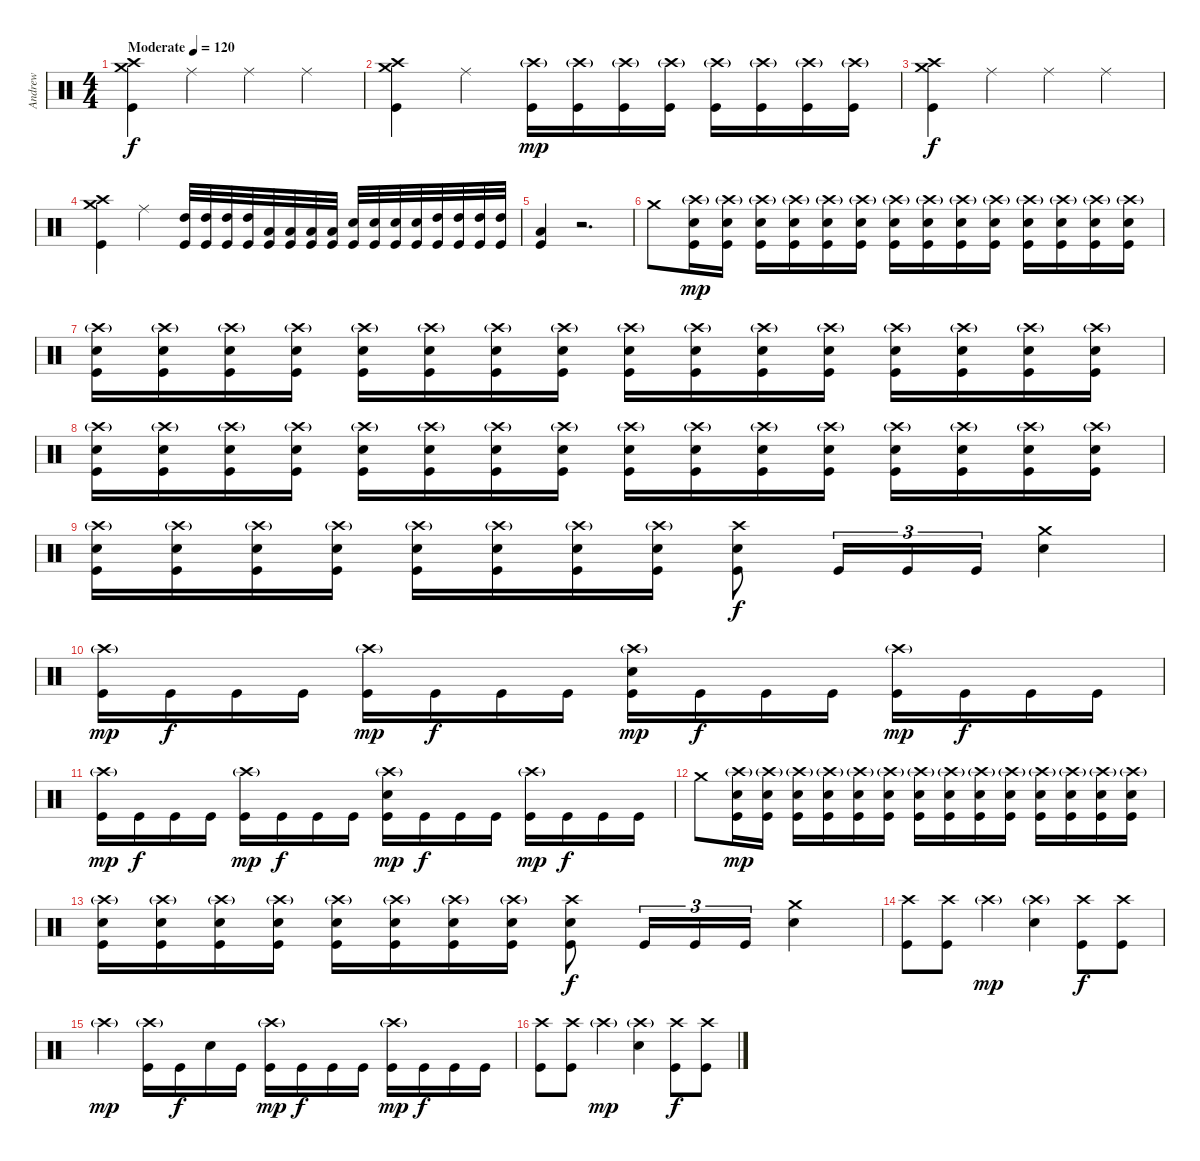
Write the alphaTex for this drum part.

\track ("Andrew" "Andrew") {instrument percussion}
\staff {score}
\articulation defaults
\ts (4 4)
\tempo (120 "Moderate")
\clef neutral
\ks c
("Crash high (hit)" "Crash medium (hit)" "Kick (hit)").4{dy f} "Ride (middle)".4 "Ride (middle)".4 "Ride (middle)".4 |
("Crash high (hit)" "Crash medium (hit)" "Kick (hit)").4 "Ride (middle)".4 ("Crash high (hit)"{g} "Kick (hit)").16{dy mp} ("Crash high (hit)"{g} "Kick (hit)").16 ("Crash high (hit)"{g} "Kick (hit)").16 ("Crash high (hit)"{g} "Kick (hit)").16 ("Crash high (hit)"{g} "Kick (hit)").16 ("Crash high (hit)"{g} "Kick (hit)").16 ("Crash high (hit)"{g} "Kick (hit)").16 ("Crash high (hit)"{g} "Kick (hit)").16 |
("Crash high (hit)" "Crash medium (hit)" "Kick (hit)").4{dy f} "Ride (middle)".4 "Ride (middle)".4 "Ride (middle)".4 |
("Crash high (hit)" "Crash medium (hit)" "Kick (hit)").4 "Ride (middle)".4 ("High Tom (hit)" "Kick (hit)").32 ("High Tom (hit)" "Kick (hit)").32 ("High Tom (hit)" "Kick (hit)").32 ("High Tom (hit)" "Kick (hit)").32 ("Low Tom (hit)" "Kick (hit)").32 ("Low Tom (hit)" "Kick (hit)").32 ("Low Tom (hit)" "Kick (hit)").32 ("Low Tom (hit)" "Kick (hit)").32 ("Snare (hit) 2" "Kick (hit)").32 ("Snare (hit) 2" "Kick (hit)").32 ("Snare (hit) 2" "Kick (hit)").32 ("Snare (hit) 2" "Kick (hit)").32 ("High Tom (hit)" "Kick (hit)").32 ("High Tom (hit)" "Kick (hit)").32 ("High Tom (hit)" "Kick (hit)").32 ("High Tom (hit)" "Kick (hit)").32 |
("Low Tom (hit)" "Kick (hit)").4 r.2{d} |
"Crash medium (hit)".8 ("Crash high (hit)"{g} "Snare (hit) 2" "Kick (hit)").16{dy mp} ("Crash high (hit)"{g} "Snare (hit) 2" "Kick (hit)").16 ("Crash high (hit)"{g} "Snare (hit) 2" "Kick (hit)").16 ("Crash high (hit)"{g} "Snare (hit) 2" "Kick (hit)").16 ("Crash high (hit)"{g} "Snare (hit) 2" "Kick (hit)").16 ("Crash high (hit)"{g} "Snare (hit) 2" "Kick (hit)").16 ("Crash high (hit)"{g} "Snare (hit) 2" "Kick (hit)").16 ("Crash high (hit)"{g} "Snare (hit) 2" "Kick (hit)").16 ("Crash high (hit)"{g} "Snare (hit) 2" "Kick (hit)").16 ("Crash high (hit)"{g} "Snare (hit) 2" "Kick (hit)").16 ("Crash high (hit)"{g} "Snare (hit) 2" "Kick (hit)").16 ("Crash high (hit)"{g} "Snare (hit) 2" "Kick (hit)").16 ("Crash high (hit)"{g} "Snare (hit) 2" "Kick (hit)").16 ("Crash high (hit)"{g} "Snare (hit) 2" "Kick (hit)").16 |
("Crash high (hit)"{g} "Snare (hit) 2" "Kick (hit)").16 ("Crash high (hit)"{g} "Snare (hit) 2" "Kick (hit)").16 ("Crash high (hit)"{g} "Snare (hit) 2" "Kick (hit)").16 ("Crash high (hit)"{g} "Snare (hit) 2" "Kick (hit)").16 ("Crash high (hit)"{g} "Snare (hit) 2" "Kick (hit)").16 ("Crash high (hit)"{g} "Snare (hit) 2" "Kick (hit)").16 ("Crash high (hit)"{g} "Snare (hit) 2" "Kick (hit)").16 ("Crash high (hit)"{g} "Snare (hit) 2" "Kick (hit)").16 ("Crash high (hit)"{g} "Snare (hit) 2" "Kick (hit)").16 ("Crash high (hit)"{g} "Snare (hit) 2" "Kick (hit)").16 ("Crash high (hit)"{g} "Snare (hit) 2" "Kick (hit)").16 ("Crash high (hit)"{g} "Snare (hit) 2" "Kick (hit)").16 ("Crash high (hit)"{g} "Snare (hit) 2" "Kick (hit)").16 ("Crash high (hit)"{g} "Snare (hit) 2" "Kick (hit)").16 ("Crash high (hit)"{g} "Snare (hit) 2" "Kick (hit)").16 ("Crash high (hit)"{g} "Snare (hit) 2" "Kick (hit)").16 |
("Crash high (hit)"{g} "Snare (hit) 2" "Kick (hit)").16 ("Crash high (hit)"{g} "Snare (hit) 2" "Kick (hit)").16 ("Crash high (hit)"{g} "Snare (hit) 2" "Kick (hit)").16 ("Crash high (hit)"{g} "Snare (hit) 2" "Kick (hit)").16 ("Crash high (hit)"{g} "Snare (hit) 2" "Kick (hit)").16 ("Crash high (hit)"{g} "Snare (hit) 2" "Kick (hit)").16 ("Crash high (hit)"{g} "Snare (hit) 2" "Kick (hit)").16 ("Crash high (hit)"{g} "Snare (hit) 2" "Kick (hit)").16 ("Crash high (hit)"{g} "Snare (hit) 2" "Kick (hit)").16 ("Crash high (hit)"{g} "Snare (hit) 2" "Kick (hit)").16 ("Crash high (hit)"{g} "Snare (hit) 2" "Kick (hit)").16 ("Crash high (hit)"{g} "Snare (hit) 2" "Kick (hit)").16 ("Crash high (hit)"{g} "Snare (hit) 2" "Kick (hit)").16 ("Crash high (hit)"{g} "Snare (hit) 2" "Kick (hit)").16 ("Crash high (hit)"{g} "Snare (hit) 2" "Kick (hit)").16 ("Crash high (hit)"{g} "Snare (hit) 2" "Kick (hit)").16 |
("Crash high (hit)"{g} "Snare (hit) 2" "Kick (hit)").16 ("Crash high (hit)"{g} "Snare (hit) 2" "Kick (hit)").16 ("Crash high (hit)"{g} "Snare (hit) 2" "Kick (hit)").16 ("Crash high (hit)"{g} "Snare (hit) 2" "Kick (hit)").16 ("Crash high (hit)"{g} "Snare (hit) 2" "Kick (hit)").16 ("Crash high (hit)"{g} "Snare (hit) 2" "Kick (hit)").16 ("Crash high (hit)"{g} "Snare (hit) 2" "Kick (hit)").16 ("Crash high (hit)"{g} "Snare (hit) 2" "Kick (hit)").16 ("Crash high (hit)" "Snare (hit) 2" "Kick (hit)").8{dy f} "Kick (hit)".16{tu (3 2)} "Kick (hit)".16{tu (3 2)} "Kick (hit)".16{tu (3 2)} ("Crash medium (hit)" "Snare (hit) 2").4 |
("Crash high (hit)"{g} "Kick (hit)").16{dy mp} "Kick (hit)".16{dy f} "Kick (hit)".16 "Kick (hit)".16 ("Crash high (hit)"{g} "Kick (hit)").16{dy mp} "Kick (hit)".16{dy f} "Kick (hit)".16 "Kick (hit)".16 ("Crash high (hit)"{g} "Snare (hit) 2" "Kick (hit)").16{dy mp} "Kick (hit)".16{dy f} "Kick (hit)".16 "Kick (hit)".16 ("Crash high (hit)"{g} "Kick (hit)").16{dy mp} "Kick (hit)".16{dy f} "Kick (hit)".16 "Kick (hit)".16 |
("Crash high (hit)"{g} "Kick (hit)").16{dy mp} "Kick (hit)".16{dy f} "Kick (hit)".16 "Kick (hit)".16 ("Crash high (hit)"{g} "Kick (hit)").16{dy mp} "Kick (hit)".16{dy f} "Kick (hit)".16 "Kick (hit)".16 ("Crash high (hit)"{g} "Snare (hit) 2" "Kick (hit)").16{dy mp} "Kick (hit)".16{dy f} "Kick (hit)".16 "Kick (hit)".16 ("Crash high (hit)"{g} "Kick (hit)").16{dy mp} "Kick (hit)".16{dy f} "Kick (hit)".16 "Kick (hit)".16 |
"Crash medium (hit)".8 ("Crash high (hit)"{g} "Snare (hit) 2" "Kick (hit)").16{dy mp} ("Crash high (hit)"{g} "Snare (hit) 2" "Kick (hit)").16 ("Crash high (hit)"{g} "Snare (hit) 2" "Kick (hit)").16 ("Crash high (hit)"{g} "Snare (hit) 2" "Kick (hit)").16 ("Crash high (hit)"{g} "Snare (hit) 2" "Kick (hit)").16 ("Crash high (hit)"{g} "Snare (hit) 2" "Kick (hit)").16 ("Crash high (hit)"{g} "Snare (hit) 2" "Kick (hit)").16 ("Crash high (hit)"{g} "Snare (hit) 2" "Kick (hit)").16 ("Crash high (hit)"{g} "Snare (hit) 2" "Kick (hit)").16 ("Crash high (hit)"{g} "Snare (hit) 2" "Kick (hit)").16 ("Crash high (hit)"{g} "Snare (hit) 2" "Kick (hit)").16 ("Crash high (hit)"{g} "Snare (hit) 2" "Kick (hit)").16 ("Crash high (hit)"{g} "Snare (hit) 2" "Kick (hit)").16 ("Crash high (hit)"{g} "Snare (hit) 2" "Kick (hit)").16 |
("Crash high (hit)"{g} "Snare (hit) 2" "Kick (hit)").16 ("Crash high (hit)"{g} "Snare (hit) 2" "Kick (hit)").16 ("Crash high (hit)"{g} "Snare (hit) 2" "Kick (hit)").16 ("Crash high (hit)"{g} "Snare (hit) 2" "Kick (hit)").16 ("Crash high (hit)"{g} "Snare (hit) 2" "Kick (hit)").16 ("Crash high (hit)"{g} "Snare (hit) 2" "Kick (hit)").16 ("Crash high (hit)"{g} "Snare (hit) 2" "Kick (hit)").16 ("Crash high (hit)"{g} "Snare (hit) 2" "Kick (hit)").16 ("Crash high (hit)" "Snare (hit) 2" "Kick (hit)").8{dy f} "Kick (hit)".16{tu (3 2)} "Kick (hit)".16{tu (3 2)} "Kick (hit)".16{tu (3 2)} ("Crash medium (hit)" "Snare (hit) 2").4 |
("Crash high (hit)" "Kick (hit)").8 ("Crash high (hit)" "Kick (hit)").8 "Crash high (hit)"{g}.4{dy mp} ("Crash high (hit)"{g} "Snare (hit) 2").4 ("Crash high (hit)" "Kick (hit)").8{dy f} ("Crash high (hit)" "Kick (hit)").8 |
"Crash high (hit)"{g}.4{dy mp} ("Crash high (hit)"{g} "Kick (hit)").16 "Kick (hit)".16{dy f} "Snare (hit) 2".16 "Kick (hit)".16 ("Crash high (hit)"{g} "Kick (hit)").16{dy mp} "Kick (hit)".16{dy f} "Kick (hit)".16 "Kick (hit)".16 ("Crash high (hit)"{g} "Kick (hit)").16{dy mp} "Kick (hit)".16{dy f} "Kick (hit)".16 "Kick (hit)".16 |
("Crash high (hit)" "Kick (hit)").8 ("Crash high (hit)" "Kick (hit)").8 "Crash high (hit)"{g}.4{dy mp} ("Crash high (hit)"{g} "Snare (hit) 2").4 ("Crash high (hit)" "Kick (hit)").8{dy f} ("Crash high (hit)" "Kick (hit)").8
